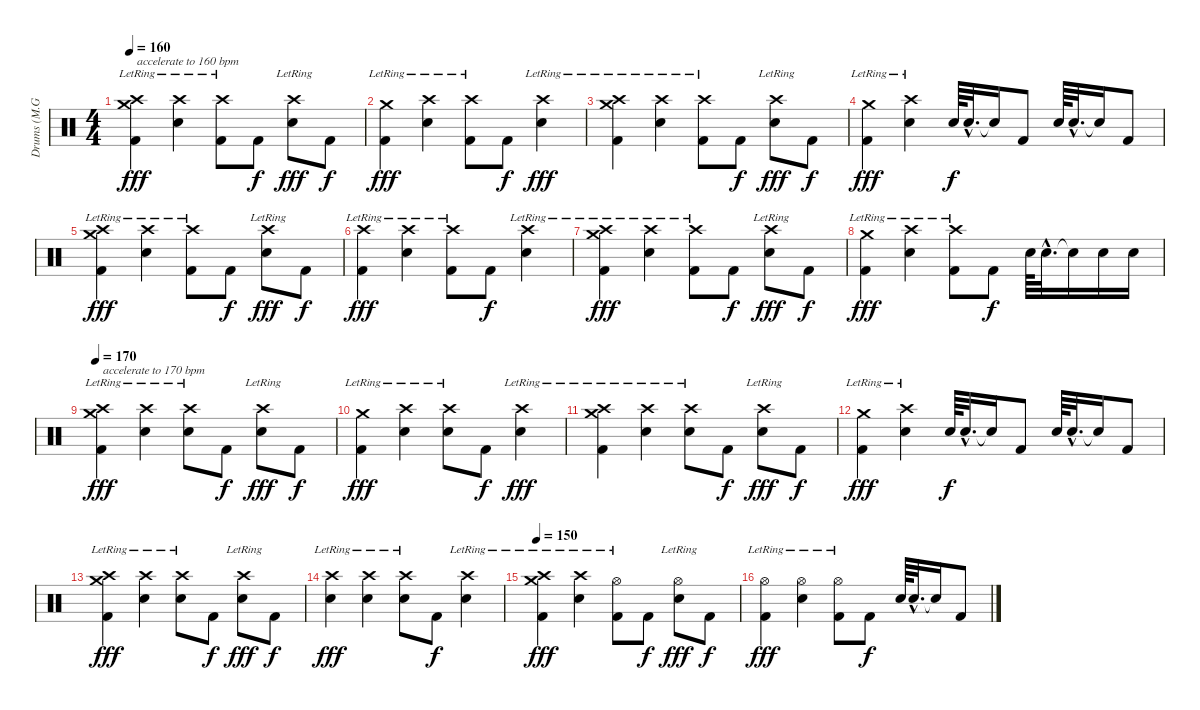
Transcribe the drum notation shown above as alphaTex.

\track ("Drums (M.Großkopf)" "Drums (M.G") {instrument percussion}
\staff {score}
\articulation defaults
\ts (4 4)
\tempo 160
\clef neutral
\ks c
("Crash high (hit)"{lr} "Crash medium (hit)"{lr} "Kick (hit) 2").4{txt "accelerate to 160 bpm" dy fff} ("Crash high (hit)"{lr} "Electric Snare (hit)").4 ("Crash high (hit)"{lr} "Kick (hit) 2").8 "Kick (hit) 2".8{dy f} ("Crash high (hit)"{lr} "Electric Snare (hit)").8{dy fff} "Kick (hit) 2".8{dy f} |
("Crash medium (hit)"{lr} "Kick (hit) 2").4{dy fff} ("Crash high (hit)"{lr} "Electric Snare (hit)").4 ("Crash high (hit)"{lr} "Kick (hit) 2").8 "Kick (hit) 2".8{dy f} ("Crash high (hit)"{lr} "Electric Snare (hit)").4{dy fff} |
("Crash high (hit)"{lr} "Crash medium (hit)"{lr} "Kick (hit) 2").4 ("Crash high (hit)"{lr} "Electric Snare (hit)").4 ("Crash high (hit)"{lr} "Kick (hit) 2").8 "Kick (hit) 2".8{dy f} ("Crash high (hit)"{lr} "Electric Snare (hit)").8{dy fff} "Kick (hit) 2".8{dy f} |
("Crash medium (hit)"{lr} "Kick (hit) 2").4{dy fff} ("Crash high (hit)"{lr} "Electric Snare (hit)").4 "Electric Snare (hit)".64{dy f} "Electric Snare (hit)"{hac}.32{d} "Snare (hit)"{t}.16 "Kick (hit) 2".8 "Electric Snare (hit)".64 "Electric Snare (hit)"{hac}.32{d} "Snare (hit)"{t}.16 "Kick (hit) 2".8 |
("Crash high (hit)"{lr} "Crash medium (hit)"{lr} "Kick (hit) 2").4{dy fff} ("Crash high (hit)"{lr} "Electric Snare (hit)").4 ("Crash high (hit)"{lr} "Kick (hit) 2").8 "Kick (hit) 2".8{dy f} ("Crash high (hit)"{lr} "Electric Snare (hit)").8{dy fff} "Kick (hit) 2".8{dy f} |
("Crash high (hit)"{lr} "Kick (hit) 2").4{dy fff} ("Crash high (hit)"{lr} "Electric Snare (hit)").4 ("Crash high (hit)"{lr} "Kick (hit) 2").8 "Kick (hit) 2".8{dy f} ("Crash high (hit)"{lr} "Electric Snare (hit)").4 |
("Crash high (hit)"{lr} "Crash medium (hit)"{lr} "Kick (hit) 2").4{dy fff} ("Crash high (hit)"{lr} "Electric Snare (hit)").4 ("Crash high (hit)"{lr} "Kick (hit) 2").8 "Kick (hit) 2".8{dy f} ("Crash high (hit)"{lr} "Electric Snare (hit)").8{dy fff} "Kick (hit) 2".8{dy f} |
("Crash medium (hit)"{lr} "Kick (hit) 2").4{dy fff} ("Crash high (hit)"{lr} "Electric Snare (hit)").4 ("Crash high (hit)"{lr} "Kick (hit) 2").8 "Kick (hit) 2".8{dy f} "Electric Snare (hit)".64 "Electric Snare (hit)"{hac}.32{d} "Snare (hit)"{t}.16 "Electric Snare (hit)".16 "Electric Snare (hit)".16 |
\tempo 170
("Crash high (hit)"{lr} "Crash medium (hit)"{lr} "Kick (hit) 2").4{txt "accelerate to 170 bpm" dy fff} ("Crash high (hit)"{lr} "Electric Snare (hit)").4 ("Crash high (hit)"{lr} "Electric Snare (hit)").8 "Kick (hit) 2".8{dy f} ("Crash high (hit)"{lr} "Electric Snare (hit)").8{dy fff} "Kick (hit) 2".8{dy f} |
("Crash medium (hit)"{lr} "Kick (hit) 2").4{dy fff} ("Crash high (hit)"{lr} "Electric Snare (hit)").4 ("Crash high (hit)"{lr} "Electric Snare (hit)").8 "Kick (hit) 2".8{dy f} ("Crash high (hit)"{lr} "Electric Snare (hit)").4{dy fff} |
("Crash high (hit)"{lr} "Crash medium (hit)"{lr} "Kick (hit) 2").4 ("Crash high (hit)"{lr} "Electric Snare (hit)").4 ("Crash high (hit)"{lr} "Electric Snare (hit)").8 "Kick (hit) 2".8{dy f} ("Crash high (hit)"{lr} "Electric Snare (hit)").8{dy fff} "Kick (hit) 2".8{dy f} |
("Crash medium (hit)"{lr} "Kick (hit) 2").4{dy fff} ("Crash high (hit)"{lr} "Electric Snare (hit)").4 "Electric Snare (hit)".64{dy f} "Electric Snare (hit)"{hac}.32{d} "Snare (hit)"{t}.16 "Kick (hit) 2".8 "Electric Snare (hit)".64 "Electric Snare (hit)"{hac}.32{d} "Snare (hit)"{t}.16 "Kick (hit) 2".8 |
("Crash high (hit)"{lr} "Crash medium (hit)"{lr} "Kick (hit) 2").4{dy fff} ("Crash high (hit)"{lr} "Electric Snare (hit)").4 ("Crash high (hit)"{lr} "Electric Snare (hit)").8 "Kick (hit) 2".8{dy f} ("Crash high (hit)"{lr} "Electric Snare (hit)").8{dy fff} "Kick (hit) 2".8{dy f} |
("Crash high (hit)"{lr} "Electric Snare (hit)").4{dy fff} ("Crash high (hit)"{lr} "Electric Snare (hit)").4 ("Crash high (hit)"{lr} "Electric Snare (hit)").8 "Kick (hit) 2".8{dy f} ("Crash high (hit)"{lr} "Electric Snare (hit)").4 |
\tempo 150
("Crash high (hit)"{lr} "Crash medium (hit)"{lr} "Kick (hit) 2").4{dy fff} ("Crash high (hit)"{lr} "Electric Snare (hit)").4 ("Hi-Hat (open)"{lr} "Kick (hit) 2").8 "Kick (hit) 2".8{dy f} ("Hi-Hat (open)"{lr} "Electric Snare (hit)").8{dy fff} "Kick (hit) 2".8{dy f} |
("Hi-Hat (open)"{lr} "Kick (hit) 2").4{dy fff} ("Hi-Hat (open)"{lr} "Electric Snare (hit)").4 ("Hi-Hat (open)"{lr} "Kick (hit) 2").8 "Kick (hit) 2".8{dy f} "Electric Snare (hit)".64 "Electric Snare (hit)"{hac}.32{d} "Snare (hit)"{t}.16 "Kick (hit) 2".8
